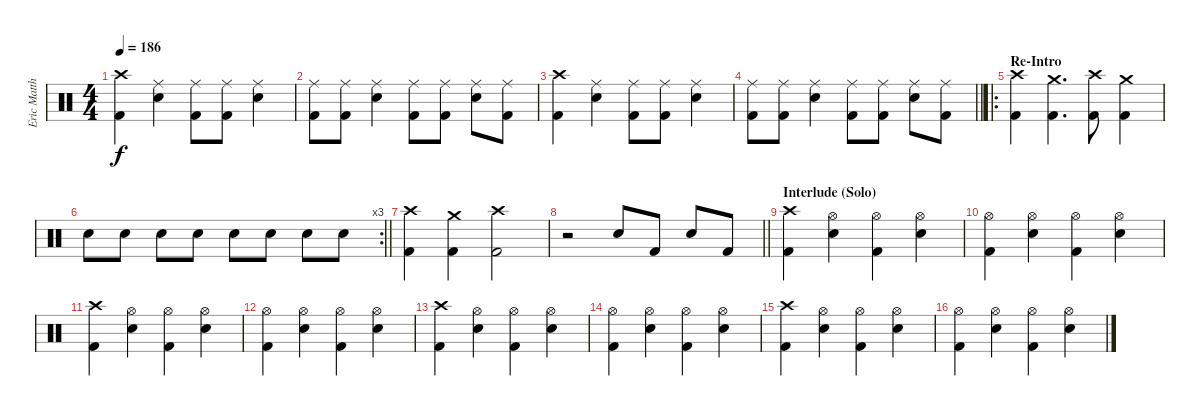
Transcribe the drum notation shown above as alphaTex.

\track ("Eric Matthews" "Eric Matth") {instrument percussion}
\staff {score}
\articulation defaults
\ts (4 4)
\tempo 186
\clef neutral
\ks c
("Crash high (hit)" "Kick (hit) 2").4{dy f} ("Ride (middle)" "Electric Snare (hit)").4 ("Ride (middle)" "Kick (hit) 2").8 ("Ride (middle)" "Kick (hit) 2").8 ("Ride (middle)" "Electric Snare (hit)").4 |
("Ride (middle)" "Kick (hit) 2").8 ("Ride (middle)" "Kick (hit) 2").8 ("Ride (middle)" "Electric Snare (hit)").4 ("Ride (middle)" "Kick (hit) 2").8 ("Ride (middle)" "Kick (hit) 2").8 ("Ride (middle)" "Electric Snare (hit)").8 ("Ride (middle)" "Kick (hit) 2").8 |
("Crash high (hit)" "Kick (hit) 2").4 ("Ride (middle)" "Electric Snare (hit)").4 ("Ride (middle)" "Kick (hit) 2").8 ("Ride (middle)" "Kick (hit) 2").8 ("Ride (middle)" "Electric Snare (hit)").4 |
\barLineRight lightlight
("Ride (middle)" "Kick (hit) 2").8 ("Ride (middle)" "Kick (hit) 2").8 ("Ride (middle)" "Electric Snare (hit)").4 ("Ride (middle)" "Kick (hit) 2").8 ("Ride (middle)" "Kick (hit) 2").8 ("Ride (middle)" "Electric Snare (hit)").8 ("Ride (middle)" "Kick (hit) 2").8 |
\ro
\section ("" "Re-Intro")
("Crash high (hit)" "Kick (hit) 2").4 ("Crash medium (hit)" "Kick (hit) 2").4{d} ("Crash high (hit)" "Kick (hit) 2").8 ("Crash medium (hit)" "Kick (hit) 2").4 |
\rc 3
\barLineRight lightlight "Electric Snare (hit)".8 "Electric Snare (hit)".8 "Electric Snare (hit)".8 "Electric Snare (hit)".8 "Electric Snare (hit)".8 "Electric Snare (hit)".8 "Electric Snare (hit)".8 "Electric Snare (hit)".8
|
("Crash high (hit)" "Kick (hit) 2").4 ("Crash medium (hit)" "Kick (hit) 2").4 ("Crash high (hit)" "Kick (hit) 2").2 |
\barLineRight lightlight
r.2 "Electric Snare (hit)".8 "Kick (hit) 2".8 "Electric Snare (hit)".8 "Kick (hit) 2".8 |
\section ("" "Interlude (Solo)")
("Crash high (hit)" "Kick (hit) 2").4 ("Hi-Hat (open)" "Electric Snare (hit)").4 ("Hi-Hat (open)" "Kick (hit) 2").4 ("Hi-Hat (open)" "Electric Snare (hit)").4 |
("Hi-Hat (open)" "Kick (hit) 2").4 ("Hi-Hat (open)" "Electric Snare (hit)").4 ("Hi-Hat (open)" "Kick (hit) 2").4 ("Hi-Hat (open)" "Electric Snare (hit)").4 |
("Crash high (hit)" "Kick (hit) 2").4 ("Hi-Hat (open)" "Electric Snare (hit)").4 ("Hi-Hat (open)" "Kick (hit) 2").4 ("Hi-Hat (open)" "Electric Snare (hit)").4 |
("Hi-Hat (open)" "Kick (hit) 2").4 ("Hi-Hat (open)" "Electric Snare (hit)").4 ("Hi-Hat (open)" "Kick (hit) 2").4 ("Hi-Hat (open)" "Electric Snare (hit)").4 |
("Crash high (hit)" "Kick (hit) 2").4 ("Hi-Hat (open)" "Electric Snare (hit)").4 ("Hi-Hat (open)" "Kick (hit) 2").4 ("Hi-Hat (open)" "Electric Snare (hit)").4 |
("Hi-Hat (open)" "Kick (hit) 2").4 ("Hi-Hat (open)" "Electric Snare (hit)").4 ("Hi-Hat (open)" "Kick (hit) 2").4 ("Hi-Hat (open)" "Electric Snare (hit)").4 |
("Crash high (hit)" "Kick (hit) 2").4 ("Hi-Hat (open)" "Electric Snare (hit)").4 ("Hi-Hat (open)" "Kick (hit) 2").4 ("Hi-Hat (open)" "Electric Snare (hit)").4 |
("Hi-Hat (open)" "Kick (hit) 2").4 ("Hi-Hat (open)" "Electric Snare (hit)").4 ("Hi-Hat (open)" "Kick (hit) 2").4 ("Hi-Hat (open)" "Electric Snare (hit)").4
